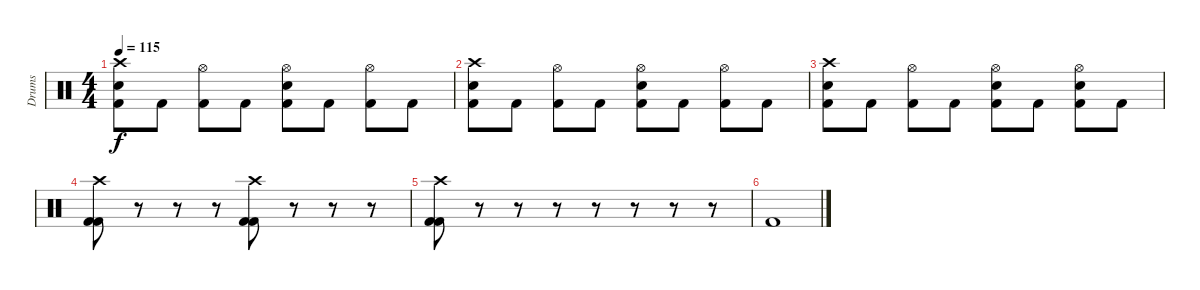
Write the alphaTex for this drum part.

\track ("Drums" "Drums") {instrument percussion}
\staff {score}
\articulation defaults
\ts (4 4)
\tempo 115
\clef neutral
\ks c
("Crash high (hit)" "Snare (hit) 2" "Kick (hit) 2").8{dy f} "Kick (hit) 2".8 ("Hi-Hat (open)" "Kick (hit) 2").8 "Kick (hit) 2".8 ("Hi-Hat (open)" "Snare (hit) 2" "Kick (hit) 2").8 "Kick (hit) 2".8 ("Hi-Hat (open)" "Kick (hit) 2").8 "Kick (hit) 2".8 |
("Crash high (hit)" "Snare (hit) 2" "Kick (hit) 2").8 "Kick (hit) 2".8 ("Hi-Hat (open)" "Kick (hit) 2").8 "Kick (hit) 2".8 ("Hi-Hat (open)" "Snare (hit) 2" "Kick (hit) 2").8 "Kick (hit) 2".8 ("Hi-Hat (open)" "Kick (hit) 2").8 "Kick (hit) 2".8 |
("Crash high (hit)" "Snare (hit) 2" "Kick (hit) 2").8 "Kick (hit) 2".8 ("Hi-Hat (open)" "Kick (hit) 2").8 "Kick (hit) 2".8 ("Hi-Hat (open)" "Snare (hit) 2" "Kick (hit) 2").8 "Kick (hit) 2".8 ("Hi-Hat (open)" "Snare (hit) 2" "Kick (hit) 2").8 "Kick (hit) 2".8 |
("Crash high (hit)" "Kick (hit) 2" "Kick (hit) 2").8 r.8 r.8 r.8 ("Crash high (hit)" "Kick (hit) 2" "Kick (hit) 2").8 r.8 r.8 r.8 |
("Crash high (hit)" "Kick (hit) 2" "Kick (hit) 2").8 r.8 r.8 r.8 r.8 r.8 r.8 r.8 |
"Kick (hit) 2".1
